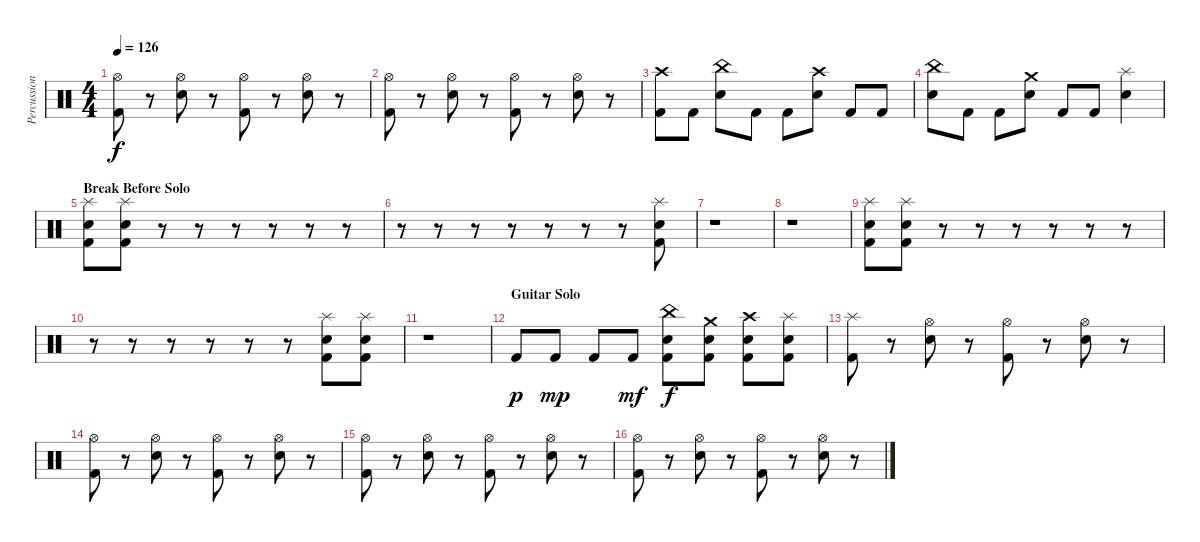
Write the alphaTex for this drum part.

\track ("Percussion" "Percussion") {instrument percussion}
\staff {score}
\articulation defaults
\ts (4 4)
\tempo 126
\clef neutral
\ks c
("Hi-Hat (open)" "Kick (hit) 2").8{dy f} r.8 ("Hi-Hat (open)" "Snare (hit) 2").8 r.8 ("Hi-Hat (open)" "Kick (hit) 2").8 r.8 ("Hi-Hat (open)" "Snare (hit) 2").8 r.8 |
("Hi-Hat (open)" "Kick (hit) 2").8 r.8 ("Hi-Hat (open)" "Snare (hit) 2").8 r.8 ("Hi-Hat (open)" "Kick (hit) 2").8 r.8 ("Hi-Hat (open)" "Snare (hit) 2").8 r.8 |
("Crash high (hit)" "Kick (hit) 2").8 "Kick (hit) 2".8 ("China (hit)" "Snare (hit) 2").8 "Kick (hit) 2".8 "Kick (hit) 2".8 ("Crash high (hit)" "Snare (hit) 2").8 "Kick (hit) 2".8 "Kick (hit) 2".8 |
("China (hit)" "Snare (hit) 2").8 "Kick (hit) 2".8 "Kick (hit) 2".8 ("Crash medium (hit)" "Snare (hit) 2").8 "Kick (hit) 2".8 "Kick (hit) 2".8 ("Splash (hit)" "Snare (hit) 2").4 |
\section ("" "Break Before Solo")
("Splash (hit)" "Snare (hit) 2" "Kick (hit) 2").8 ("Splash (hit)" "Snare (hit) 2" "Kick (hit) 2").8 r.8 r.8 r.8 r.8 r.8 r.8 |
r.8 r.8 r.8 r.8 r.8 r.8 r.8 ("Splash (hit)" "Snare (hit) 2" "Kick (hit) 2").8 |
r.1 |
r.1 |
("Splash (hit)" "Snare (hit) 2" "Kick (hit) 2").8 ("Splash (hit)" "Snare (hit) 2" "Kick (hit) 2").8 r.8 r.8 r.8 r.8 r.8 r.8 |
r.8 r.8 r.8 r.8 r.8 r.8 ("Splash (hit)" "Snare (hit) 2" "Kick (hit) 2").8 ("Splash (hit)" "Snare (hit) 2" "Kick (hit) 2").8 |
r.1 |
\section ("" "Guitar Solo")
"Kick (hit) 2".8{dy p} "Kick (hit) 2".8{dy mp} "Kick (hit) 2".8 "Kick (hit) 2".8{dy mf} ("China (hit)" "Snare (hit) 2" "Kick (hit) 2").8{dy f} ("Crash medium (hit)" "Snare (hit) 2" "Kick (hit) 2").8 ("Crash high (hit)" "Snare (hit) 2" "Kick (hit) 2").8 ("Splash (hit)" "Snare (hit) 2" "Kick (hit) 2").8 |
("Splash (hit)" "Kick (hit) 2").8 r.8 ("Hi-Hat (open)" "Snare (hit) 2").8 r.8 ("Hi-Hat (open)" "Kick (hit) 2").8 r.8 ("Hi-Hat (open)" "Snare (hit) 2").8 r.8 |
("Hi-Hat (open)" "Kick (hit) 2").8 r.8 ("Hi-Hat (open)" "Snare (hit) 2").8 r.8 ("Hi-Hat (open)" "Kick (hit) 2").8 r.8 ("Hi-Hat (open)" "Snare (hit) 2").8 r.8 |
("Hi-Hat (open)" "Kick (hit) 2").8 r.8 ("Hi-Hat (open)" "Snare (hit) 2").8 r.8 ("Hi-Hat (open)" "Kick (hit) 2").8 r.8 ("Hi-Hat (open)" "Snare (hit) 2").8 r.8 |
("Hi-Hat (open)" "Kick (hit) 2").8 r.8 ("Hi-Hat (open)" "Snare (hit) 2").8 r.8 ("Hi-Hat (open)" "Kick (hit) 2").8 r.8 ("Hi-Hat (open)" "Snare (hit) 2").8 r.8
